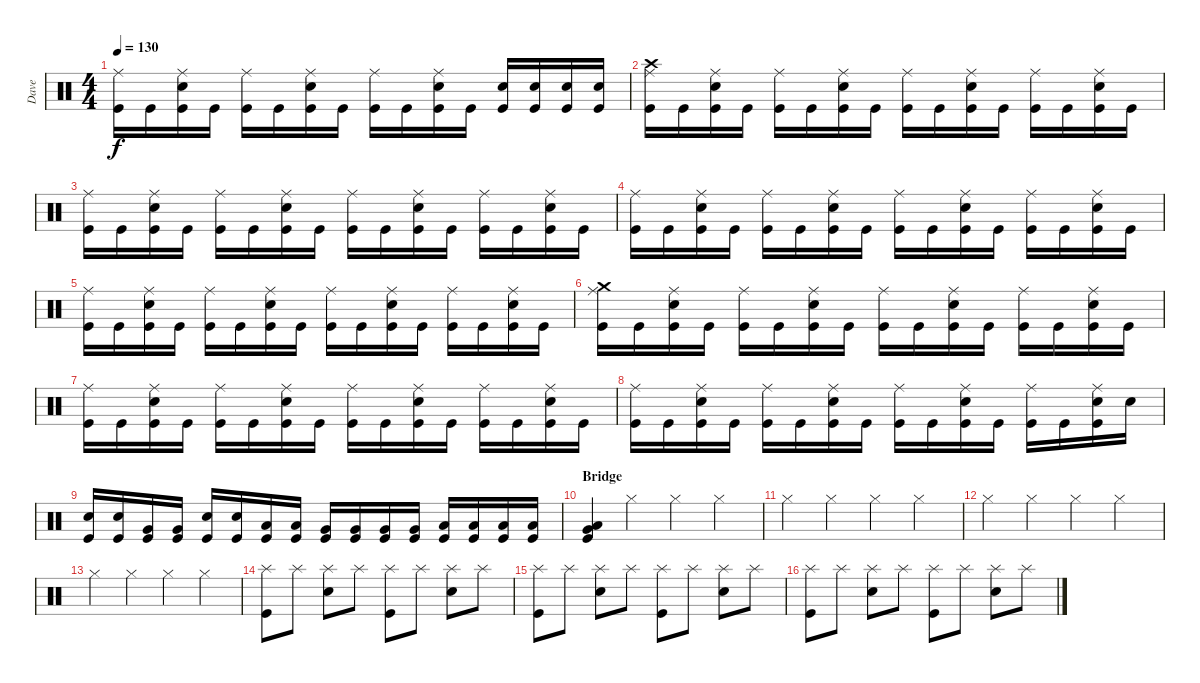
\track ("Dave" "Dave") {instrument percussion}
\staff {score}
\articulation defaults
\ts (4 4)
\tempo 130
\clef neutral
\ks c
("Ride (middle)" "Kick (hit)").16{dy f} "Kick (hit)".16 ("Ride (middle)" "Electric Snare (hit)" "Kick (hit)").16 "Kick (hit)".16 ("Ride (middle)" "Kick (hit)").16 "Kick (hit)".16 ("Ride (middle)" "Electric Snare (hit)" "Kick (hit)").16 "Kick (hit)".16 ("Ride (middle)" "Kick (hit)").16 "Kick (hit)".16 ("Ride (middle)" "Electric Snare (hit)" "Kick (hit)").16 "Kick (hit)".16 ("Electric Snare (hit)" "Kick (hit)").16 ("Electric Snare (hit)" "Kick (hit)").16 ("Electric Snare (hit)" "Kick (hit)").16 ("Electric Snare (hit)" "Kick (hit)").16 |
("Crash high (hit)" "Ride (middle)" "Kick (hit)").16 "Kick (hit)".16 ("Ride (middle)" "Electric Snare (hit)" "Kick (hit)").16 "Kick (hit)".16 ("Ride (middle)" "Kick (hit)").16 "Kick (hit)".16 ("Ride (middle)" "Electric Snare (hit)" "Kick (hit)").16 "Kick (hit)".16 ("Ride (middle)" "Kick (hit)").16 "Kick (hit)".16 ("Ride (middle)" "Electric Snare (hit)" "Kick (hit)").16 "Kick (hit)".16 ("Ride (middle)" "Kick (hit)").16 "Kick (hit)".16 ("Ride (middle)" "Electric Snare (hit)" "Kick (hit)").16 "Kick (hit)".16 |
("Ride (middle)" "Kick (hit)").16 "Kick (hit)".16 ("Ride (middle)" "Electric Snare (hit)" "Kick (hit)").16 "Kick (hit)".16 ("Ride (middle)" "Kick (hit)").16 "Kick (hit)".16 ("Ride (middle)" "Electric Snare (hit)" "Kick (hit)").16 "Kick (hit)".16 ("Ride (middle)" "Kick (hit)").16 "Kick (hit)".16 ("Ride (middle)" "Electric Snare (hit)" "Kick (hit)").16 "Kick (hit)".16 ("Ride (middle)" "Kick (hit)").16 "Kick (hit)".16 ("Ride (middle)" "Electric Snare (hit)" "Kick (hit)").16 "Kick (hit)".16 |
("Ride (middle)" "Kick (hit)").16 "Kick (hit)".16 ("Ride (middle)" "Electric Snare (hit)" "Kick (hit)").16 "Kick (hit)".16 ("Ride (middle)" "Kick (hit)").16 "Kick (hit)".16 ("Ride (middle)" "Electric Snare (hit)" "Kick (hit)").16 "Kick (hit)".16 ("Ride (middle)" "Kick (hit)").16 "Kick (hit)".16 ("Ride (middle)" "Electric Snare (hit)" "Kick (hit)").16 "Kick (hit)".16 ("Ride (middle)" "Kick (hit)").16 "Kick (hit)".16 ("Ride (middle)" "Electric Snare (hit)" "Kick (hit)").16 "Kick (hit)".16 |
("Ride (middle)" "Kick (hit)").16 "Kick (hit)".16 ("Ride (middle)" "Electric Snare (hit)" "Kick (hit)").16 "Kick (hit)".16 ("Ride (middle)" "Kick (hit)").16 "Kick (hit)".16 ("Ride (middle)" "Electric Snare (hit)" "Kick (hit)").16 "Kick (hit)".16 ("Ride (middle)" "Kick (hit)").16 "Kick (hit)".16 ("Ride (middle)" "Electric Snare (hit)" "Kick (hit)").16 "Kick (hit)".16 ("Ride (middle)" "Kick (hit)").16 "Kick (hit)".16 ("Ride (middle)" "Electric Snare (hit)" "Kick (hit)").16 "Kick (hit)".16 |
("Crash medium (hit)" "Ride (middle)" "Kick (hit)").16 "Kick (hit)".16 ("Ride (middle)" "Electric Snare (hit)" "Kick (hit)").16 "Kick (hit)".16 ("Ride (middle)" "Kick (hit)").16 "Kick (hit)".16 ("Ride (middle)" "Electric Snare (hit)" "Kick (hit)").16 "Kick (hit)".16 ("Ride (middle)" "Kick (hit)").16 "Kick (hit)".16 ("Ride (middle)" "Electric Snare (hit)" "Kick (hit)").16 "Kick (hit)".16 ("Ride (middle)" "Kick (hit)").16 "Kick (hit)".16 ("Ride (middle)" "Electric Snare (hit)" "Kick (hit)").16 "Kick (hit)".16 |
("Ride (middle)" "Kick (hit)").16 "Kick (hit)".16 ("Ride (middle)" "Electric Snare (hit)" "Kick (hit)").16 "Kick (hit)".16 ("Ride (middle)" "Kick (hit)").16 "Kick (hit)".16 ("Ride (middle)" "Electric Snare (hit)" "Kick (hit)").16 "Kick (hit)".16 ("Ride (middle)" "Kick (hit)").16 "Kick (hit)".16 ("Ride (middle)" "Electric Snare (hit)" "Kick (hit)").16 "Kick (hit)".16 ("Ride (middle)" "Kick (hit)").16 "Kick (hit)".16 ("Ride (middle)" "Electric Snare (hit)" "Kick (hit)").16 "Kick (hit)".16 |
("Ride (middle)" "Kick (hit)").16 "Kick (hit)".16 ("Ride (middle)" "Electric Snare (hit)" "Kick (hit)").16 "Kick (hit)".16 ("Ride (middle)" "Kick (hit)").16 "Kick (hit)".16 ("Ride (middle)" "Electric Snare (hit)" "Kick (hit)").16 "Kick (hit)".16 ("Ride (middle)" "Kick (hit)").16 "Kick (hit)".16 ("Ride (middle)" "Electric Snare (hit)" "Kick (hit)").16 "Kick (hit)".16 ("Ride (middle)" "Kick (hit)").16 "Kick (hit)".16 ("Ride (middle)" "Electric Snare (hit)" "Kick (hit)").16 "Snare (hit)".16 |
("Electric Snare (hit)" "Kick (hit)").16 ("Electric Snare (hit)" "Kick (hit)").16 ("Very Low Tom (hit)" "Kick (hit)").16 ("Very Low Tom (hit)" "Kick (hit)").16 ("Electric Snare (hit)" "Kick (hit)").16 ("Electric Snare (hit)" "Kick (hit)").16 ("Low Tom (hit)" "Kick (hit)").16 ("Low Tom (hit)" "Kick (hit)").16 ("Very Low Tom (hit)" "Kick (hit)").16 ("Very Low Tom (hit)" "Kick (hit)").16 ("Very Low Tom (hit)" "Kick (hit)").16 ("Very Low Tom (hit)" "Kick (hit)").16 ("Low Floor Tom (hit)" "Kick (hit)").16 ("Low Floor Tom (hit)" "Kick (hit)").16 ("Low Floor Tom (hit)" "Kick (hit)").16 ("Low Floor Tom (hit)" "Kick (hit)").16 |
\section ("" "Bridge")
("Low Floor Tom (hit)" "Very Low Tom (hit)" "Kick (hit)").4 "Hi-Hat (closed)".4 "Hi-Hat (closed)".4 "Hi-Hat (closed)".4 |
"Hi-Hat (closed)".4 "Hi-Hat (closed)".4 "Hi-Hat (closed)".4 "Hi-Hat (closed)".4 |
"Hi-Hat (closed)".4 "Hi-Hat (closed)".4 "Hi-Hat (closed)".4 "Hi-Hat (closed)".4 |
"Hi-Hat (closed)".4 "Hi-Hat (closed)".4 "Hi-Hat (closed)".4 "Hi-Hat (closed)".4 |
("Splash (hit)" "Kick (hit)").8 "Splash (hit)".8 ("Splash (hit)" "Electric Snare (hit)").8 "Splash (hit)".8 ("Splash (hit)" "Kick (hit)").8 "Splash (hit)".8 ("Splash (hit)" "Electric Snare (hit)").8 "Splash (hit)".8 |
("Splash (hit)" "Kick (hit)").8 "Splash (hit)".8 ("Splash (hit)" "Electric Snare (hit)").8 "Splash (hit)".8 ("Splash (hit)" "Kick (hit)").8 "Splash (hit)".8 ("Splash (hit)" "Electric Snare (hit)").8 "Splash (hit)".8 |
("Splash (hit)" "Kick (hit)").8 "Splash (hit)".8 ("Splash (hit)" "Electric Snare (hit)").8 "Splash (hit)".8 ("Splash (hit)" "Kick (hit)").8 "Splash (hit)".8 ("Splash (hit)" "Electric Snare (hit)").8 "Splash (hit)".8
